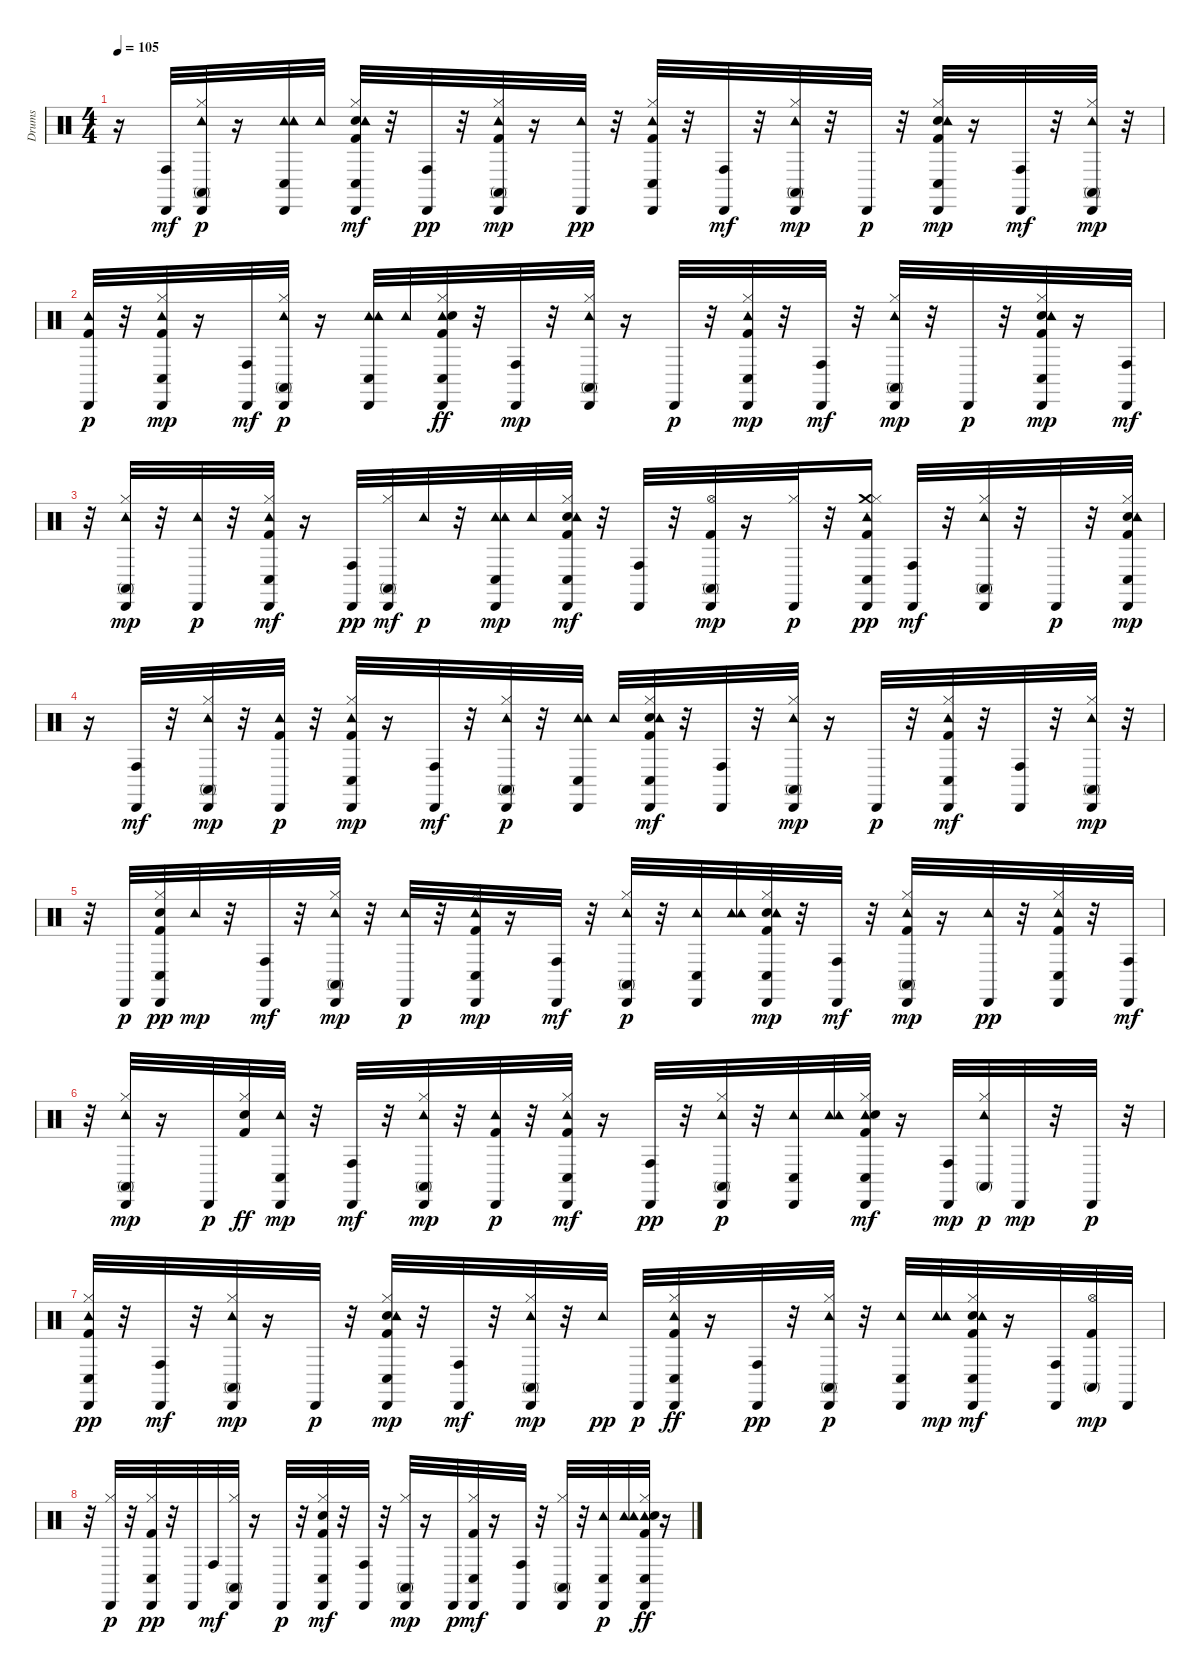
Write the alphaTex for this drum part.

\track ("Drums" "Drums") {instrument percussion}
\staff {score}
\articulation defaults
\ts (4 4)
\tempo 105
\clef neutral
\ks c
r.16{dy mp} ("Cabasa (hit)" "Conga high (hit)").32{dy mf} ("Cabasa (hit)" "Hi-Hat (closed)" "Conga high (mute)" "Tambourine (hit)").32{dy p} r.16 ("Tambourine (hit)" "Cabasa (hit)" "Conga low (hit)" "Tambourine (hit)").32 "Tambourine (hit)".32 ("Hi-Hat (closed)" "Snare (hit) 2" "Kick (hit) 2" "Cabasa (hit)" "Tambourine (hit)" "Conga low (hit)").32{dy mf} r.32 ("Conga high (hit)" "Cabasa (hit)").32{dy pp} r.32 ("Conga high (mute)" "Hi-Hat (closed)" "Kick (hit) 2" "Tambourine (hit)" "Cabasa (hit)").32{dy mp} r.16 ("Cabasa (hit)" "Tambourine (hit)").32{dy pp} r.32 ("Hi-Hat (closed)" "Kick (hit) 2" "Conga low (hit)" "Tambourine (hit)" "Cabasa (hit)").32 r.32 ("Cabasa (hit)" "Conga high (hit)").32{dy mf} r.32 ("Tambourine (hit)" "Hi-Hat (closed)" "Conga high (mute)" "Cabasa (hit)").32{dy mp} r.32 "Cabasa (hit)".32{dy p} r.32 ("Hi-Hat (closed)" "Snare (hit) 2" "Kick (hit) 2" "Cabasa (hit)" "Tambourine (hit)" "Conga low (hit)").32{dy mp} r.16 ("Cabasa (hit)" "Conga high (hit)").32{dy mf} r.32 ("Hi-Hat (closed)" "Tambourine (hit)" "Cabasa (hit)" "Conga high (mute)").32{dy mp} r.32 |
("Tambourine (hit)" "Kick (hit) 2" "Cabasa (hit)").32{dy p} r.32 ("Conga low (hit)" "Hi-Hat (closed)" "Kick (hit) 2" "Cabasa (hit)" "Tambourine (hit)").32{dy mp} r.16 ("Cabasa (hit)" "Conga high (hit)").32{dy mf} ("Cabasa (hit)" "Hi-Hat (closed)" "Conga high (mute)" "Tambourine (hit)").32{dy p} r.16 ("Tambourine (hit)" "Cabasa (hit)" "Conga low (hit)" "Tambourine (hit)").32 "Tambourine (hit)".32 ("Conga low (hit)" "Cabasa (hit)" "Tambourine (hit)" "Hi-Hat (closed)" "Snare (hit) 2" "Kick (hit) 2").32{dy ff} r.32 ("Cabasa (hit)" "Conga high (hit)").32{dy mp} r.32 ("Hi-Hat (closed)" "Tambourine (hit)" "Conga high (mute)" "Cabasa (hit)").32 r.16 "Cabasa (hit)".32{dy p} r.32 ("Hi-Hat (closed)" "Kick (hit) 2" "Conga low (hit)" "Cabasa (hit)" "Tambourine (hit)").32{dy mp} r.32 ("Cabasa (hit)" "Conga high (hit)").32{dy mf} r.32 ("Conga high (mute)" "Hi-Hat (closed)" "Tambourine (hit)" "Cabasa (hit)").32{dy mp} r.32 "Cabasa (hit)".32{dy p} r.32 ("Hi-Hat (closed)" "Snare (hit) 2" "Kick (hit) 2" "Cabasa (hit)" "Tambourine (hit)" "Conga low (hit)").32{dy mp} r.16 ("Cabasa (hit)" "Conga high (hit)").32{dy mf} |
r.32 ("Hi-Hat (closed)" "Tambourine (hit)" "Cabasa (hit)" "Conga high (mute)").32{dy mp} r.32 ("Tambourine (hit)" "Cabasa (hit)").32{dy p} r.32 ("Hi-Hat (closed)" "Kick (hit) 2" "Cabasa (hit)" "Tambourine (hit)" "Conga low (hit)").32{dy mf} r.16 ("Conga high (hit)" "Cabasa (hit)").32{dy pp} ("Conga high (mute)" "Cabasa (hit)" "Hi-Hat (closed)").32{dy mf} "Tambourine (hit)".32{dy p} r.32 ("Tambourine (hit)" "Cabasa (hit)" "Conga low (hit)" "Tambourine (hit)").32{dy mp} "Tambourine (hit)".32 ("Cabasa (hit)" "Conga low (hit)" "Hi-Hat (closed)" "Snare (hit) 2" "Kick (hit) 2" "Tambourine (hit)").32{dy mf} r.32 ("Cabasa (hit)" "Conga high (hit)").32 r.32 ("Hi-Hat (open)" "Kick (hit) 2" "Conga high (mute)" "Cabasa (hit)").32{dy mp} r.16 ("Cabasa (hit)" "Hi-Hat (closed)").32{dy p} r.32 ("Crash medium (hit)" "Hi-Hat (closed)" "Kick (hit) 2" "Conga low (hit)" "Tambourine (hit)" "Cabasa (hit)").16{dy pp} ("Cabasa (hit)" "Conga high (hit)").32{dy mf} r.32 ("Hi-Hat (closed)" "Tambourine (hit)" "Cabasa (hit)" "Conga high (mute)").32 r.32 "Cabasa (hit)".32{dy p} r.32 ("Conga low (hit)" "Hi-Hat (closed)" "Snare (hit) 2" "Kick (hit) 2" "Cabasa (hit)" "Tambourine (hit)").32{dy mp} |
r.16 ("Cabasa (hit)" "Conga high (hit)").32{dy mf} r.32 ("Tambourine (hit)" "Hi-Hat (closed)" "Cabasa (hit)" "Conga high (mute)").32{dy mp} r.32 ("Tambourine (hit)" "Kick (hit) 2" "Cabasa (hit)").32{dy p} r.32 ("Hi-Hat (closed)" "Kick (hit) 2" "Cabasa (hit)" "Conga low (hit)" "Tambourine (hit)").32{dy mp} r.16 ("Cabasa (hit)" "Conga high (hit)").32{dy mf} r.32 ("Cabasa (hit)" "Hi-Hat (closed)" "Tambourine (hit)" "Conga high (mute)").32{dy p} r.32 ("Tambourine (hit)" "Conga low (hit)" "Cabasa (hit)" "Tambourine (hit)").32 "Tambourine (hit)".32 ("Hi-Hat (closed)" "Snare (hit) 2" "Kick (hit) 2" "Cabasa (hit)" "Tambourine (hit)" "Conga low (hit)").32{dy mf} r.32 ("Cabasa (hit)" "Conga high (hit)").32 r.32 ("Conga high (mute)" "Hi-Hat (closed)" "Tambourine (hit)" "Cabasa (hit)").32{dy mp} r.16 "Cabasa (hit)".32{dy p} r.32 ("Hi-Hat (closed)" "Kick (hit) 2" "Tambourine (hit)" "Cabasa (hit)" "Conga low (hit)").32{dy mf} r.32 ("Cabasa (hit)" "Conga high (hit)").32 r.32 ("Hi-Hat (closed)" "Tambourine (hit)" "Conga high (mute)" "Cabasa (hit)").32{dy mp} r.32 |
r.32 "Cabasa (hit)".32{dy p} ("Hi-Hat (closed)" "Snare (hit) 2" "Kick (hit) 2" "Conga low (hit)" "Cabasa (hit)").32{dy pp} "Tambourine (hit)".32{dy mp} r.32 ("Cabasa (hit)" "Conga high (hit)").32{dy mf} r.32 ("Hi-Hat (closed)" "Conga high (mute)" "Tambourine (hit)" "Cabasa (hit)").32{dy mp} r.32 ("Tambourine (hit)" "Cabasa (hit)").32{dy p} r.32 ("Hi-Hat (closed)" "Kick (hit) 2" "Cabasa (hit)" "Tambourine (hit)" "Conga low (hit)").32{dy mp} r.16 ("Cabasa (hit)" "Conga high (hit)").32{dy mf} r.32 ("Cabasa (hit)" "Hi-Hat (closed)" "Tambourine (hit)" "Conga high (mute)").32{dy p} r.32 ("Tambourine (hit)" "Cabasa (hit)" "Conga low (hit)").32 ("Tambourine (hit)" "Tambourine (hit)").32 ("Cabasa (hit)" "Hi-Hat (closed)" "Snare (hit) 2" "Kick (hit) 2" "Tambourine (hit)" "Conga low (hit)").32{dy mp} r.32 ("Cabasa (hit)" "Conga high (hit)").32{dy mf} r.32 ("Conga high (mute)" "Hi-Hat (closed)" "Kick (hit) 2" "Tambourine (hit)" "Cabasa (hit)").32{dy mp} r.16 ("Cabasa (hit)" "Tambourine (hit)").32{dy pp} r.32 ("Conga low (hit)" "Hi-Hat (closed)" "Kick (hit) 2" "Tambourine (hit)" "Cabasa (hit)").32 r.32 ("Cabasa (hit)" "Conga high (hit)").32{dy mf} |
r.32 ("Hi-Hat (closed)" "Tambourine (hit)" "Conga high (mute)" "Cabasa (hit)").32{dy mp} r.16 "Cabasa (hit)".32{dy p} ("Hi-Hat (closed)" "Snare (hit) 2" "Kick (hit) 2").32{dy ff} ("Conga low (hit)" "Cabasa (hit)" "Tambourine (hit)").32{dy mp} r.32 ("Cabasa (hit)" "Conga high (hit)").32{dy mf} r.32 ("Hi-Hat (closed)" "Tambourine (hit)" "Cabasa (hit)" "Conga high (mute)").32{dy mp} r.32 ("Tambourine (hit)" "Kick (hit) 2" "Cabasa (hit)").32{dy p} r.32 ("Hi-Hat (closed)" "Kick (hit) 2" "Cabasa (hit)" "Tambourine (hit)" "Conga low (hit)").32{dy mf} r.16 ("Conga high (hit)" "Cabasa (hit)").32{dy pp} r.32 ("Conga high (mute)" "Cabasa (hit)" "Hi-Hat (closed)" "Tambourine (hit)").32{dy p} r.32 ("Tambourine (hit)" "Cabasa (hit)" "Conga low (hit)").32 ("Tambourine (hit)" "Tambourine (hit)").32 ("Cabasa (hit)" "Tambourine (hit)" "Hi-Hat (closed)" "Snare (hit) 2" "Kick (hit) 2" "Conga low (hit)").32{dy mf} r.16 ("Cabasa (hit)" "Conga high (hit)").32{dy mp} ("Hi-Hat (closed)" "Tambourine (hit)" "Conga high (mute)").32{dy p} "Cabasa (hit)".32{dy mp} r.32 "Cabasa (hit)".32{dy p} r.32 |
("Conga low (hit)" "Hi-Hat (closed)" "Kick (hit) 2" "Tambourine (hit)" "Cabasa (hit)").32{dy pp} r.32 ("Cabasa (hit)" "Conga high (hit)").32{dy mf} r.32 ("Hi-Hat (closed)" "Conga high (mute)" "Tambourine (hit)" "Cabasa (hit)").32{dy mp} r.16 "Cabasa (hit)".32{dy p} r.32 ("Hi-Hat (closed)" "Snare (hit) 2" "Kick (hit) 2" "Cabasa (hit)" "Conga low (hit)" "Tambourine (hit)").32{dy mp} r.32 ("Cabasa (hit)" "Conga high (hit)").32{dy mf} r.32 ("Hi-Hat (closed)" "Tambourine (hit)" "Cabasa (hit)" "Conga high (mute)").32{dy mp} r.32 "Tambourine (hit)".32{dy pp} "Cabasa (hit)".32{dy p} ("Conga low (hit)" "Cabasa (hit)" "Tambourine (hit)" "Hi-Hat (closed)" "Kick (hit) 2").32{dy ff} r.16 ("Conga high (hit)" "Cabasa (hit)").32{dy pp} r.32 ("Conga high (mute)" "Cabasa (hit)" "Hi-Hat (closed)" "Tambourine (hit)").32{dy p} r.32 ("Tambourine (hit)" "Cabasa (hit)" "Conga low (hit)").32 ("Tambourine (hit)" "Tambourine (hit)").32{dy mp} ("Conga low (hit)" "Hi-Hat (closed)" "Snare (hit) 2" "Kick (hit) 2" "Cabasa (hit)" "Tambourine (hit)").32{dy mf} r.16 ("Cabasa (hit)" "Conga high (hit)").32 ("Hi-Hat (open)" "Kick (hit) 2" "Conga high (mute)").32{dy mp} "Cabasa (hit)".32 |
r.32 ("Cabasa (hit)" "Hi-Hat (closed)").32{dy p} r.32 ("Hi-Hat (closed)" "Kick (hit) 2" "Conga low (hit)" "Cabasa (hit)").32{dy pp} r.32 "Cabasa (hit)".32 "Conga high (hit)".32{dy mf} ("Hi-Hat (closed)" "Cabasa (hit)" "Conga high (mute)").32 r.16 "Cabasa (hit)".32{dy p} r.32 ("Hi-Hat (closed)" "Snare (hit) 2" "Kick (hit) 2" "Cabasa (hit)" "Conga low (hit)").32{dy mf} r.32 ("Cabasa (hit)" "Conga high (hit)").32 r.32 ("Hi-Hat (closed)" "Conga high (mute)" "Cabasa (hit)").32{dy mp} r.16 "Cabasa (hit)".32{dy p} ("Hi-Hat (closed)" "Kick (hit) 2" "Cabasa (hit)" "Conga low (hit)").32{dy mf} r.16 ("Cabasa (hit)" "Conga high (hit)").32 r.32 ("Cabasa (hit)" "Hi-Hat (closed)" "Conga high (mute)").32 r.32 ("Tambourine (hit)" "Cabasa (hit)" "Conga low (hit)").32{dy p} ("Tambourine (hit)" "Tambourine (hit)").32 ("Conga low (hit)" "Cabasa (hit)" "Tambourine (hit)" "Hi-Hat (closed)" "Snare (hit) 2" "Kick (hit) 2").32{dy ff} r.16
